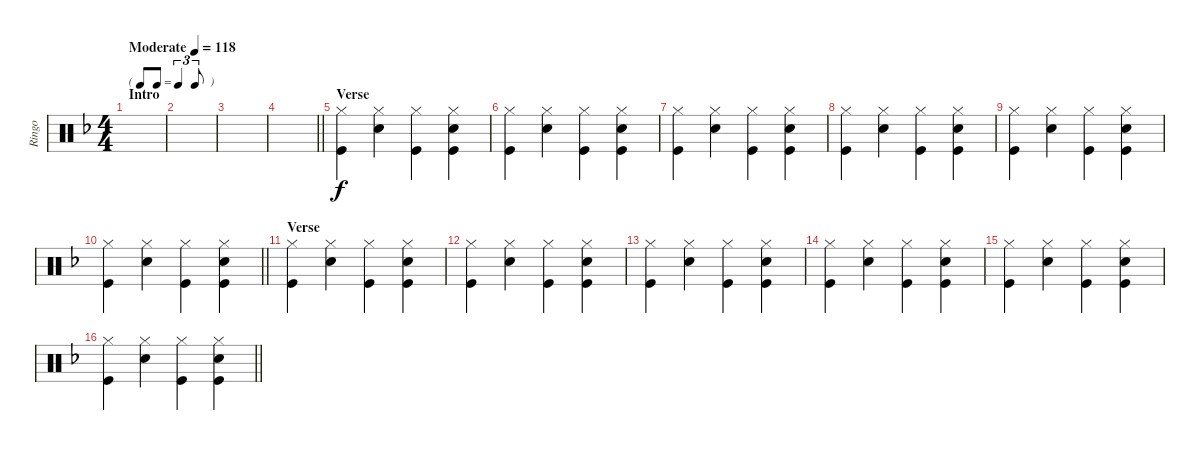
\track ("Ringo" "Ringo") {instrument percussion}
\staff {score}
\articulation defaults
\ts (4 4)
\tf triplet8th
\section ("" "Intro")
\tempo (118 "Moderate")
\clef neutral
\ks f
|
|
|
\barLineRight lightlight
|
\section ("" "Verse")
("Hi-Hat (closed)" "Kick (hit)").4 ("Hi-Hat (closed)" "Snare (hit) 2").4 ("Hi-Hat (closed)" "Kick (hit)").4 ("Hi-Hat (closed)" "Snare (hit) 2" "Kick (hit)").4 |
("Hi-Hat (closed)" "Kick (hit)").4 ("Hi-Hat (closed)" "Snare (hit) 2").4 ("Hi-Hat (closed)" "Kick (hit)").4 ("Hi-Hat (closed)" "Snare (hit) 2" "Kick (hit)").4 |
("Hi-Hat (closed)" "Kick (hit)").4 ("Hi-Hat (closed)" "Snare (hit) 2").4 ("Hi-Hat (closed)" "Kick (hit)").4 ("Hi-Hat (closed)" "Snare (hit) 2" "Kick (hit)").4 |
("Hi-Hat (closed)" "Kick (hit)").4 ("Hi-Hat (closed)" "Snare (hit) 2").4 ("Hi-Hat (closed)" "Kick (hit)").4 ("Hi-Hat (closed)" "Snare (hit) 2" "Kick (hit)").4 |
("Hi-Hat (closed)" "Kick (hit)").4 ("Hi-Hat (closed)" "Snare (hit) 2").4 ("Hi-Hat (closed)" "Kick (hit)").4 ("Hi-Hat (closed)" "Snare (hit) 2" "Kick (hit)").4 |
\barLineRight lightlight
("Hi-Hat (closed)" "Kick (hit)").4 ("Hi-Hat (closed)" "Snare (hit) 2").4 ("Hi-Hat (closed)" "Kick (hit)").4 ("Hi-Hat (closed)" "Snare (hit) 2" "Kick (hit)").4 |
\section ("" "Verse")
("Hi-Hat (closed)" "Kick (hit)").4 ("Hi-Hat (closed)" "Snare (hit) 2").4 ("Hi-Hat (closed)" "Kick (hit)").4 ("Hi-Hat (closed)" "Snare (hit) 2" "Kick (hit)").4 |
("Hi-Hat (closed)" "Kick (hit)").4 ("Hi-Hat (closed)" "Snare (hit) 2").4 ("Hi-Hat (closed)" "Kick (hit)").4 ("Hi-Hat (closed)" "Snare (hit) 2" "Kick (hit)").4 |
("Hi-Hat (closed)" "Kick (hit)").4 ("Hi-Hat (closed)" "Snare (hit) 2").4 ("Hi-Hat (closed)" "Kick (hit)").4 ("Hi-Hat (closed)" "Snare (hit) 2" "Kick (hit)").4 |
("Hi-Hat (closed)" "Kick (hit)").4 ("Hi-Hat (closed)" "Snare (hit) 2").4 ("Hi-Hat (closed)" "Kick (hit)").4 ("Hi-Hat (closed)" "Snare (hit) 2" "Kick (hit)").4 |
("Hi-Hat (closed)" "Kick (hit)").4 ("Hi-Hat (closed)" "Snare (hit) 2").4 ("Hi-Hat (closed)" "Kick (hit)").4 ("Hi-Hat (closed)" "Snare (hit) 2" "Kick (hit)").4 |
\barLineRight lightlight
("Hi-Hat (closed)" "Kick (hit)").4 ("Hi-Hat (closed)" "Snare (hit) 2").4 ("Hi-Hat (closed)" "Kick (hit)").4 ("Hi-Hat (closed)" "Snare (hit) 2" "Kick (hit)").4
